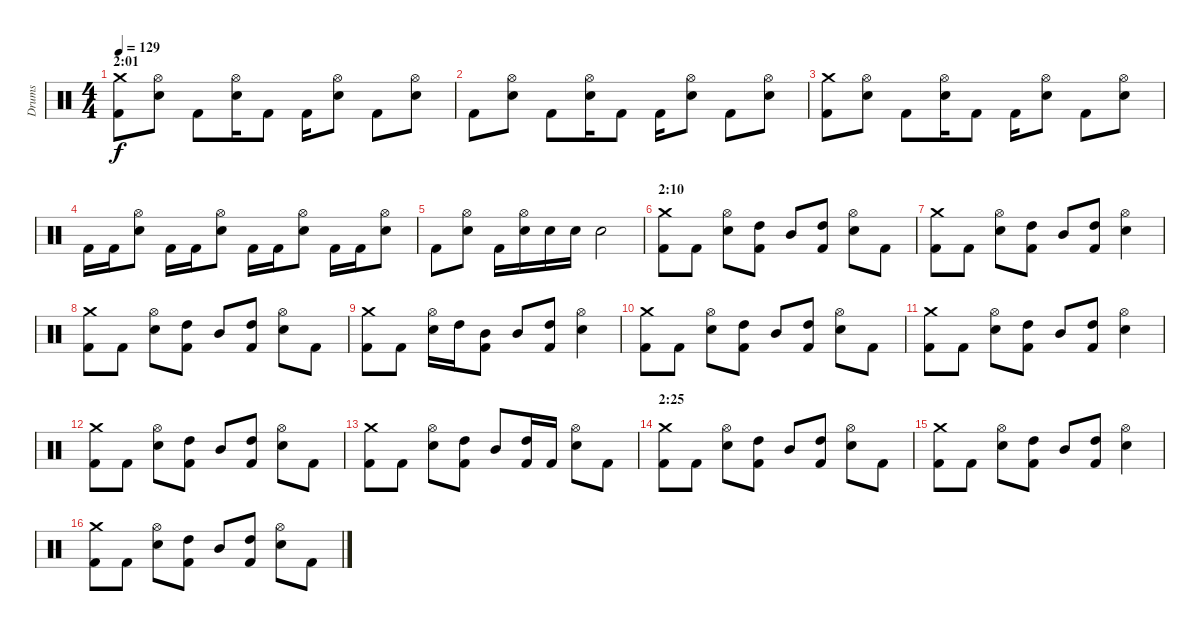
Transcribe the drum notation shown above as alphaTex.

\track ("Drums" "Drums") {instrument percussion}
\staff {score}
\articulation defaults
\ts (4 4)
\section ("" "2:01")
\tempo 129
\clef neutral
\ks c
("Crash medium (hit)" "Kick (hit) 2").8{dy f} ("Hi-Hat (open)" "Snare (hit) 2").8 "Kick (hit) 2".8 ("Hi-Hat (open)" "Snare (hit) 2").16 "Kick (hit) 2".8 "Kick (hit) 2".16 ("Hi-Hat (open)" "Snare (hit) 2").8 "Kick (hit) 2".8 ("Hi-Hat (open)" "Snare (hit) 2").8 |
"Kick (hit) 2".8 ("Hi-Hat (open)" "Snare (hit) 2").8 "Kick (hit) 2".8 ("Hi-Hat (open)" "Snare (hit) 2").16 "Kick (hit) 2".8 "Kick (hit) 2".16 ("Hi-Hat (open)" "Snare (hit) 2").8 "Kick (hit) 2".8 ("Hi-Hat (open)" "Snare (hit) 2").8 |
("Crash medium (hit)" "Kick (hit) 2").8 ("Hi-Hat (open)" "Snare (hit) 2").8 "Kick (hit) 2".8 ("Hi-Hat (open)" "Snare (hit) 2").16 "Kick (hit) 2".8 "Kick (hit) 2".16 ("Hi-Hat (open)" "Snare (hit) 2").8 "Kick (hit) 2".8 ("Hi-Hat (open)" "Snare (hit) 2").8 |
"Kick (hit) 2".16 "Kick (hit) 2".16 ("Hi-Hat (open)" "Snare (hit) 2").8 "Kick (hit) 2".16 "Kick (hit) 2".16 ("Hi-Hat (open)" "Snare (hit) 2").8 "Kick (hit) 2".16 "Kick (hit) 2".16 ("Hi-Hat (open)" "Snare (hit) 2").8 "Kick (hit) 2".16 "Kick (hit) 2".16 ("Hi-Hat (open)" "Snare (hit) 2").8 |
"Kick (hit) 2".8 ("Hi-Hat (open)" "Snare (hit) 2").8 "Kick (hit) 2".16 ("Hi-Hat (open)" "Snare (hit) 2").16 "Snare (hit) 2".16 "Snare (hit) 2".16 "Snare (hit) 2".2 |
\section ("" "2:10")
("Crash medium (hit)" "Kick (hit) 2").8 "Kick (hit) 2".8 ("Hi-Hat (open)" "Snare (hit) 2").8 ("High Tom (hit)" "Kick (hit) 2").8 "Mid Tom (hit)".8 ("High Tom (hit)" "Kick (hit) 2").8 ("Hi-Hat (open)" "Snare (hit) 2").8 "Kick (hit) 2".8 |
("Crash medium (hit)" "Kick (hit) 2").8 "Kick (hit) 2".8 ("Hi-Hat (open)" "Snare (hit) 2").8 ("High Tom (hit)" "Kick (hit) 2").8 "Mid Tom (hit)".8 ("High Tom (hit)" "Kick (hit) 2").8 ("Hi-Hat (open)" "Snare (hit) 2").4 |
("Crash medium (hit)" "Kick (hit) 2").8 "Kick (hit) 2".8 ("Hi-Hat (open)" "Snare (hit) 2").8 ("High Tom (hit)" "Kick (hit) 2").8 "Mid Tom (hit)".8 ("High Tom (hit)" "Kick (hit) 2").8 ("Hi-Hat (open)" "Snare (hit) 2").8 "Kick (hit) 2".8 |
("Crash medium (hit)" "Kick (hit) 2").8 "Kick (hit) 2".8 ("Hi-Hat (open)" "Snare (hit) 2").16 "High Tom (hit)".16 ("Mid Tom (hit)" "Kick (hit) 2").8 "Mid Tom (hit)".8 ("High Tom (hit)" "Kick (hit) 2").8 ("Hi-Hat (open)" "Snare (hit) 2").4 |
("Crash medium (hit)" "Kick (hit) 2").8 "Kick (hit) 2".8 ("Hi-Hat (open)" "Snare (hit) 2").8 ("High Tom (hit)" "Kick (hit) 2").8 "Mid Tom (hit)".8 ("High Tom (hit)" "Kick (hit) 2").8 ("Hi-Hat (open)" "Snare (hit) 2").8 "Kick (hit) 2".8 |
("Crash medium (hit)" "Kick (hit) 2").8 "Kick (hit) 2".8 ("Hi-Hat (open)" "Snare (hit) 2").8 ("High Tom (hit)" "Kick (hit) 2").8 "Mid Tom (hit)".8 ("High Tom (hit)" "Kick (hit) 2").8 ("Hi-Hat (open)" "Snare (hit) 2").4 |
("Crash medium (hit)" "Kick (hit) 2").8 "Kick (hit) 2".8 ("Hi-Hat (open)" "Snare (hit) 2").8 ("High Tom (hit)" "Kick (hit) 2").8 "Mid Tom (hit)".8 ("High Tom (hit)" "Kick (hit) 2").8 ("Hi-Hat (open)" "Snare (hit) 2").8 "Kick (hit) 2".8 |
("Crash medium (hit)" "Kick (hit) 2").8 "Kick (hit) 2".8 ("Hi-Hat (open)" "Snare (hit) 2").8 ("High Tom (hit)" "Kick (hit) 2").8 "Mid Tom (hit)".8 ("High Tom (hit)" "Kick (hit) 2").16 "Kick (hit) 2".16 ("Hi-Hat (open)" "Snare (hit) 2").8 "Kick (hit) 2".8 |
\section ("" "2:25")
("Crash medium (hit)" "Kick (hit) 2").8 "Kick (hit) 2".8 ("Hi-Hat (open)" "Snare (hit) 2").8 ("High Tom (hit)" "Kick (hit) 2").8 "Mid Tom (hit)".8 ("High Tom (hit)" "Kick (hit) 2").8 ("Hi-Hat (open)" "Snare (hit) 2").8 "Kick (hit) 2".8 |
("Crash medium (hit)" "Kick (hit) 2").8 "Kick (hit) 2".8 ("Hi-Hat (open)" "Snare (hit) 2").8 ("High Tom (hit)" "Kick (hit) 2").8 "Mid Tom (hit)".8 ("High Tom (hit)" "Kick (hit) 2").8 ("Hi-Hat (open)" "Snare (hit) 2").4 |
("Crash medium (hit)" "Kick (hit) 2").8 "Kick (hit) 2".8 ("Hi-Hat (open)" "Snare (hit) 2").8 ("High Tom (hit)" "Kick (hit) 2").8 "Mid Tom (hit)".8 ("High Tom (hit)" "Kick (hit) 2").8 ("Hi-Hat (open)" "Snare (hit) 2").8 "Kick (hit) 2".8
